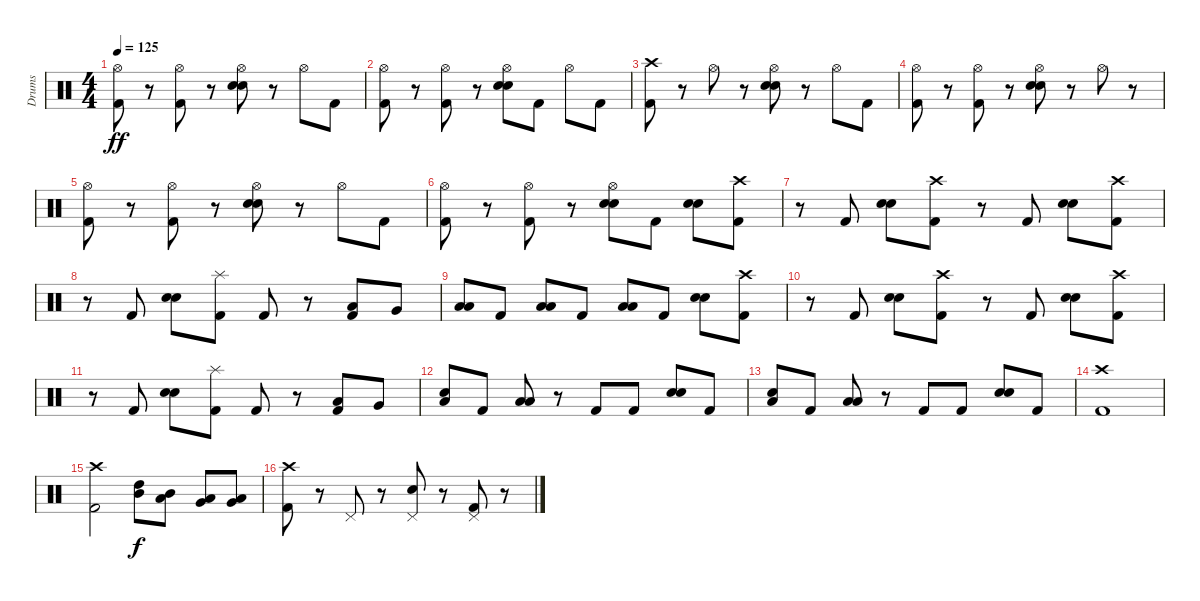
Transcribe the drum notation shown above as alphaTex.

\track ("Drums" "Drums") {instrument percussion}
\staff {score}
\articulation defaults
\ts (4 4)
\tempo 125
\clef neutral
\ks c
("Hi-Hat (open)" "Kick (hit) 2").8{dy ff} r.8 ("Hi-Hat (open)" "Kick (hit) 2").8 r.8 ("Hi-Hat (open)" "Electric Snare (hit)" "Electric Snare (hit)").8 r.8 "Hi-Hat (open)".8 "Kick (hit) 2".8 |
("Hi-Hat (open)" "Kick (hit) 2").8 r.8 ("Hi-Hat (open)" "Kick (hit) 2").8 r.8 ("Hi-Hat (open)" "Electric Snare (hit)" "Electric Snare (hit)").8 "Kick (hit) 2".8 "Hi-Hat (open)".8 "Kick (hit) 2".8 |
("Crash high (hit)" "Kick (hit) 2").8 r.8 "Hi-Hat (open)".8 r.8 ("Hi-Hat (open)" "Electric Snare (hit)" "Electric Snare (hit)").8 r.8 "Hi-Hat (open)".8 "Kick (hit) 2".8 |
("Hi-Hat (open)" "Kick (hit) 2").8 r.8 ("Hi-Hat (open)" "Kick (hit) 2").8 r.8 ("Hi-Hat (open)" "Electric Snare (hit)" "Electric Snare (hit)").8 r.8 "Hi-Hat (open)".8 r.8 |
("Hi-Hat (open)" "Kick (hit) 2").8 r.8 ("Hi-Hat (open)" "Kick (hit) 2").8 r.8 ("Hi-Hat (open)" "Electric Snare (hit)" "Electric Snare (hit)").8 r.8 "Hi-Hat (open)".8 "Kick (hit) 2".8 |
("Hi-Hat (open)" "Kick (hit) 2").8 r.8 ("Hi-Hat (open)" "Kick (hit) 2").8 r.8 ("Hi-Hat (open)" "Electric Snare (hit)" "Electric Snare (hit)").8 "Kick (hit) 2".8 ("Electric Snare (hit)" "Electric Snare (hit)").8{bd 240} ("Crash high (hit)" "Kick (hit) 2").8 |
r.8 "Kick (hit) 2".8 ("Electric Snare (hit)" "Electric Snare (hit)").8{bd 240} ("Crash high (hit)" "Kick (hit) 2").8 r.8 "Kick (hit) 2".8 ("Electric Snare (hit)" "Electric Snare (hit)").8{bd 240} ("Crash high (hit)" "Kick (hit) 2").8 |
r.8 "Kick (hit) 2".8 ("Electric Snare (hit)" "Electric Snare (hit)").8{bd 240} ("Splash (hit)" "Kick (hit) 2").8 "Kick (hit) 2".8 r.8 ("Low Floor Tom (hit)" "Kick (hit) 2").8 "Very Low Tom (hit)".8 |
("Low Tom (hit)" "Low Tom (hit)").8 "Kick (hit) 2".8 ("Low Tom (hit)" "Low Tom (hit)").8 "Kick (hit) 2".8 ("Low Tom (hit)" "Low Tom (hit)").8 "Kick (hit) 2".8 ("Electric Snare (hit)" "Electric Snare (hit)").8{bd 240} ("Crash high (hit)" "Kick (hit) 2").8 |
r.8 "Kick (hit) 2".8 ("Electric Snare (hit)" "Electric Snare (hit)").8{bd 240} ("Crash high (hit)" "Kick (hit) 2").8 r.8 "Kick (hit) 2".8 ("Electric Snare (hit)" "Electric Snare (hit)").8{bd 240} ("Crash high (hit)" "Kick (hit) 2").8 |
r.8 "Kick (hit) 2".8 ("Electric Snare (hit)" "Electric Snare (hit)").8{bd 240} ("Splash (hit)" "Kick (hit) 2").8 "Kick (hit) 2".8 r.8 ("Low Floor Tom (hit)" "Kick (hit) 2").8 "Very Low Tom (hit)".8 |
("Electric Snare (hit)" "Low Tom (hit)").8 "Kick (hit) 2".8 ("Low Tom (hit)" "Low Tom (hit)").8 r.8 "Kick (hit) 2".8 "Kick (hit) 2".8 ("Electric Snare (hit)" "Electric Snare (hit)").8{bd 240} "Kick (hit) 2".8 |
("Electric Snare (hit)" "Low Tom (hit)").8 "Kick (hit) 2".8 ("Low Tom (hit)" "Low Tom (hit)").8 r.8 "Kick (hit) 2".8 "Kick (hit) 2".8 ("Electric Snare (hit)" "Electric Snare (hit)").8{bd 240} "Kick (hit) 2".8 |
("Crash high (hit)" "Kick (hit) 2").1 |
("Crash high (hit)" "Kick (hit) 2").2 ("High Tom (hit)" "Mid Tom (hit)").8{dy f} ("Mid Tom (hit)" "Low Tom (hit)").8 ("Low Tom (hit)" "Very Low Tom (hit)").8 ("Very Low Tom (hit)" "Low Floor Tom (hit)").8 |
("Crash high (hit)" "Kick (hit) 2").8 r.8 "Pedal Hi-Hat (hit)".8 r.8 ("Pedal Hi-Hat (hit)" "Electric Snare (hit)").8 r.8 ("Pedal Hi-Hat (hit)" "Kick (hit) 2").8 r.8
